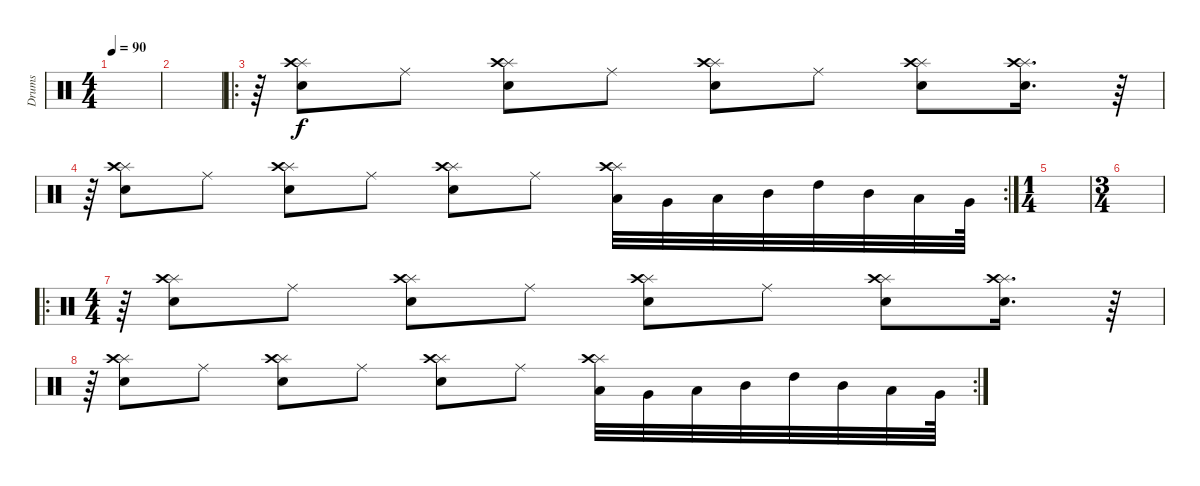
\track ("Drums" "Drums") {instrument percussion}
\staff
\articulation defaults
\ts (4 4)
\tempo 90
\clef neutral
\ks c
|
|
\ro
r.64 ("Electric Snare (hit)" "Splash (hit)" "Crash high (hit)").8 "Ride (middle)".8 ("Electric Snare (hit)" "Splash (hit)" "Crash high (hit)").8 "Ride (middle)".8 ("Electric Snare (hit)" "Splash (hit)" "Crash high (hit)").8 "Ride (middle)".8 ("Electric Snare (hit)" "Splash (hit)" "Crash high (hit)").8 ("Electric Snare (hit)" "Splash (hit)" "Crash high (hit)").16{d} r.64 |
\rc 2
r.64 ("Electric Snare (hit)" "Splash (hit)" "Crash high (hit)").8 "Ride (middle)".8 ("Electric Snare (hit)" "Splash (hit)" "Crash high (hit)").8 "Ride (middle)".8 ("Electric Snare (hit)" "Splash (hit)" "Crash high (hit)").8 "Ride (middle)".8 ("Low Floor Tom (hit)" "Splash (hit)" "Crash high (hit)").32 "Very Low Tom (hit)".32 "Low Tom (hit)".32 "Mid Tom (hit)".32 "High Tom (hit)".32 "Mid Tom (hit)".32 "Low Tom (hit)".32 "Very Low Tom (hit)".64 |
\ts (1 4)
|
\ts (3 4)
|
\ro
\ts (4 4)
r.64 ("Electric Snare (hit)" "Splash (hit)" "Crash high (hit)").8 "Ride (middle)".8 ("Electric Snare (hit)" "Splash (hit)" "Crash high (hit)").8 "Ride (middle)".8 ("Electric Snare (hit)" "Splash (hit)" "Crash high (hit)").8 "Ride (middle)".8 ("Electric Snare (hit)" "Splash (hit)" "Crash high (hit)").8 ("Electric Snare (hit)" "Splash (hit)" "Crash high (hit)").16{d} r.64 |
\rc 2
r.64 ("Electric Snare (hit)" "Splash (hit)" "Crash high (hit)").8 "Ride (middle)".8 ("Electric Snare (hit)" "Splash (hit)" "Crash high (hit)").8 "Ride (middle)".8 ("Electric Snare (hit)" "Splash (hit)" "Crash high (hit)").8 "Ride (middle)".8 ("Low Floor Tom (hit)" "Splash (hit)" "Crash high (hit)").32 "Very Low Tom (hit)".32 "Low Tom (hit)".32 "Mid Tom (hit)".32 "High Tom (hit)".32 "Mid Tom (hit)".32 "Low Tom (hit)".32 "Very Low Tom (hit)".64
